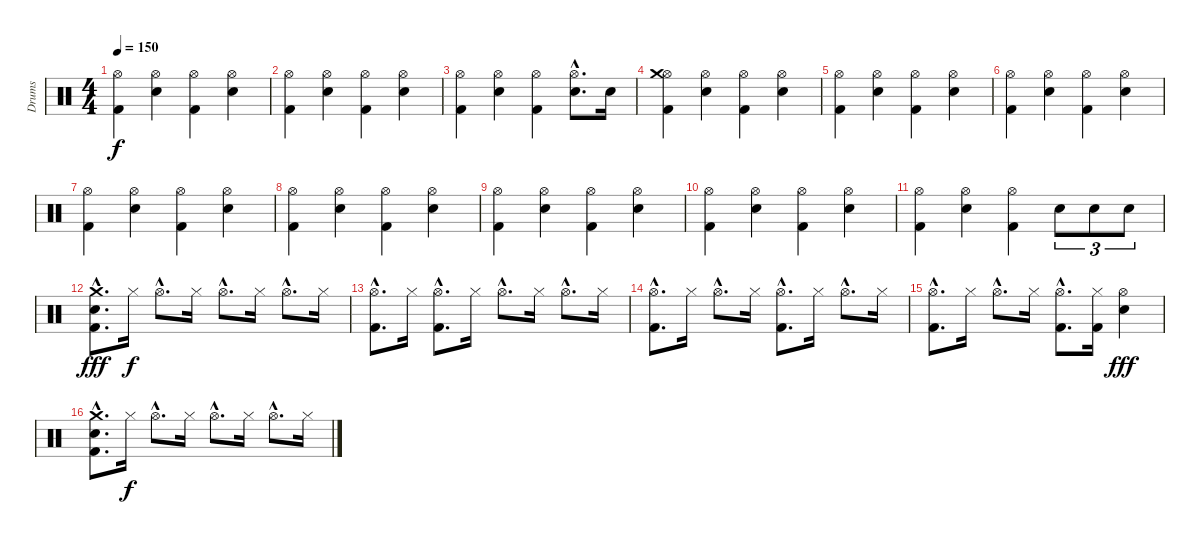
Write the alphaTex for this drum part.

\track ("Drums" "Drums") {instrument percussion}
\staff {score}
\articulation defaults
\ts (4 4)
\tempo 150
\clef neutral
\ks c
("Hi-Hat (open)" "Kick (hit) 2").4{dy f} ("Hi-Hat (open)" "Snare (hit) 2").4 ("Hi-Hat (open)" "Kick (hit) 2").4 ("Hi-Hat (open)" "Snare (hit) 2").4 |
("Hi-Hat (open)" "Kick (hit) 2").4 ("Hi-Hat (open)" "Snare (hit) 2").4 ("Hi-Hat (open)" "Kick (hit) 2").4 ("Hi-Hat (open)" "Snare (hit) 2").4 |
("Hi-Hat (open)" "Kick (hit) 2").4 ("Hi-Hat (open)" "Snare (hit) 2").4 ("Hi-Hat (open)" "Kick (hit) 2").4 ("Hi-Hat (open)"{hac} "Snare (hit) 2"{hac}).8{d} "Snare (hit) 2".16 |
("Hi-Hat (open)" "Crash medium (hit)" "Kick (hit) 2").4 ("Hi-Hat (open)" "Snare (hit) 2").4 ("Hi-Hat (open)" "Kick (hit) 2").4 ("Hi-Hat (open)" "Snare (hit) 2").4 |
("Hi-Hat (open)" "Kick (hit) 2").4 ("Hi-Hat (open)" "Snare (hit) 2").4 ("Hi-Hat (open)" "Kick (hit) 2").4 ("Hi-Hat (open)" "Snare (hit) 2").4 |
("Hi-Hat (open)" "Kick (hit) 2").4 ("Hi-Hat (open)" "Snare (hit) 2").4 ("Hi-Hat (open)" "Kick (hit) 2").4 ("Hi-Hat (open)" "Snare (hit) 2").4 |
("Hi-Hat (open)" "Kick (hit) 2").4 ("Hi-Hat (open)" "Snare (hit) 2").4 ("Hi-Hat (open)" "Kick (hit) 2").4 ("Hi-Hat (open)" "Snare (hit) 2").4 |
("Hi-Hat (open)" "Kick (hit) 2").4 ("Hi-Hat (open)" "Snare (hit) 2").4 ("Hi-Hat (open)" "Kick (hit) 2").4 ("Hi-Hat (open)" "Snare (hit) 2").4 |
("Hi-Hat (open)" "Kick (hit) 2").4 ("Hi-Hat (open)" "Snare (hit) 2").4 ("Hi-Hat (open)" "Kick (hit) 2").4 ("Hi-Hat (open)" "Snare (hit) 2").4 |
("Hi-Hat (open)" "Kick (hit) 2").4 ("Hi-Hat (open)" "Snare (hit) 2").4 ("Hi-Hat (open)" "Kick (hit) 2").4 ("Hi-Hat (open)" "Snare (hit) 2").4 |
("Hi-Hat (open)" "Kick (hit) 2").4 ("Hi-Hat (open)" "Snare (hit) 2").4 ("Hi-Hat (open)" "Kick (hit) 2").4 "Snare (hit) 2".8{tu (3 2)} "Snare (hit) 2".8{tu (3 2)} "Snare (hit) 2".8{tu (3 2)} |
("Crash medium (hit)"{hac} "Snare (hit) 2"{hac} "Kick (hit) 2"{hac}).8{d dy fff volume 9} "Hi-Hat (closed)".16{dy f} "Hi-Hat (open)"{hac}.8{d} "Hi-Hat (closed)".16 "Hi-Hat (open)"{hac}.8{d} "Hi-Hat (closed)".16 "Hi-Hat (open)"{hac}.8{d} "Hi-Hat (closed)".16 |
("Hi-Hat (open)"{hac} "Kick (hit) 2"{hac}).8{d volume 9} "Hi-Hat (closed)".16 ("Hi-Hat (open)"{hac} "Kick (hit) 2"{hac}).8{d} "Hi-Hat (closed)".16 "Hi-Hat (open)"{hac}.8{d} "Hi-Hat (closed)".16 "Hi-Hat (open)"{hac}.8{d} "Hi-Hat (closed)".16 |
("Hi-Hat (open)"{hac} "Kick (hit) 2"{hac}).8{d volume 9} "Hi-Hat (closed)".16 "Hi-Hat (open)"{hac}.8{d} "Hi-Hat (closed)".16 ("Hi-Hat (open)"{hac} "Kick (hit) 2"{hac}).8{d} "Hi-Hat (closed)".16 "Hi-Hat (open)"{hac}.8{d} "Hi-Hat (closed)".16 |
("Hi-Hat (open)"{hac} "Kick (hit) 2"{hac}).8{d volume 9} "Hi-Hat (closed)".16 "Hi-Hat (open)"{hac}.8{d} "Hi-Hat (closed)".16 ("Hi-Hat (open)"{hac} "Kick (hit) 2"{hac}).8{d} ("Hi-Hat (closed)" "Kick (hit) 2").16 ("Hi-Hat (open)" "Snare (hit) 2").4{dy fff} |
("Crash medium (hit)"{hac} "Snare (hit) 2"{hac} "Kick (hit) 2"{hac}).8{d volume 9} "Hi-Hat (closed)".16{dy f} "Hi-Hat (open)"{hac}.8{d} "Hi-Hat (closed)".16 "Hi-Hat (open)"{hac}.8{d} "Hi-Hat (closed)".16 "Hi-Hat (open)"{hac}.8{d} "Hi-Hat (closed)".16
